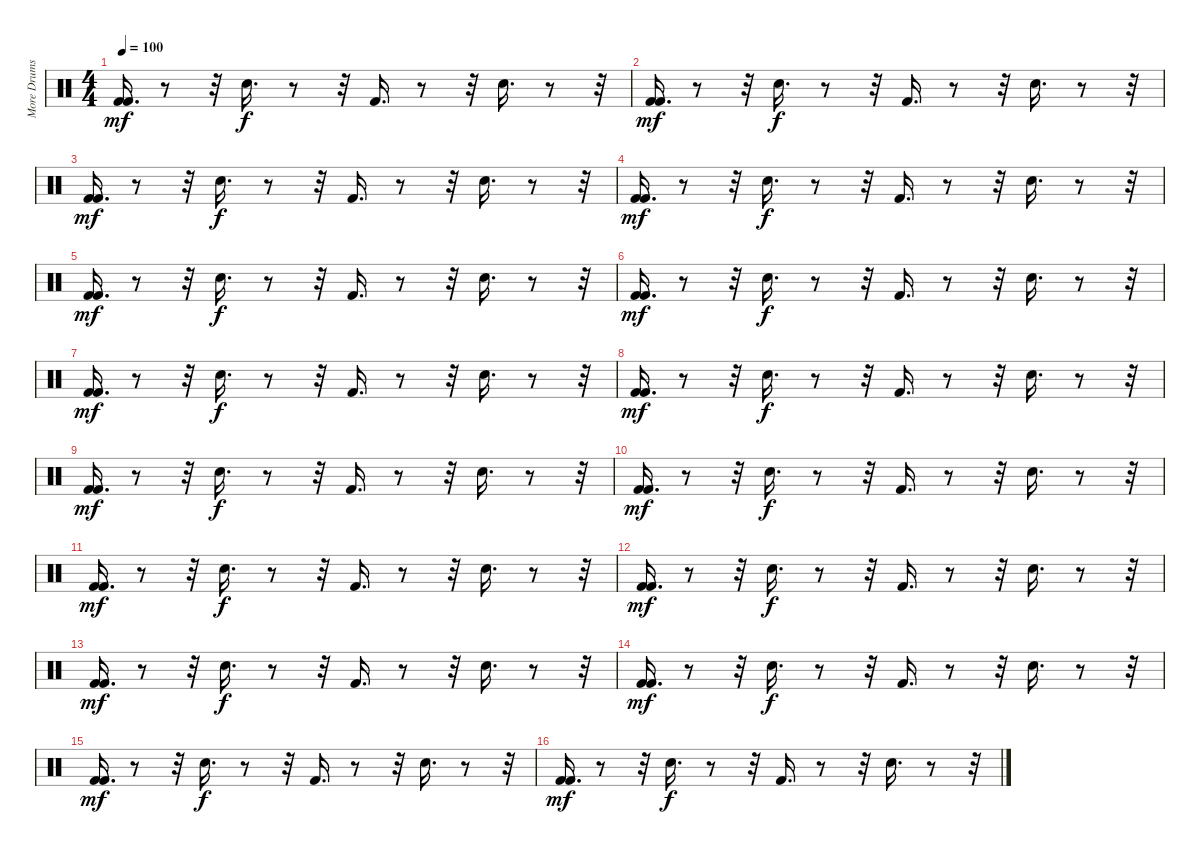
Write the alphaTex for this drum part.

\track ("More Drums" "More Drums") {instrument percussion}
\staff {score}
\articulation defaults
\ts (4 4)
\tempo 100
\clef neutral
\ks c
("Kick (hit) 2" "Kick (hit) 2").16{d dy mf} r.8 r.32 "Electric Snare (hit)".16{d dy f} r.8 r.32 "Kick (hit) 2".16{d} r.8 r.32 "Electric Snare (hit)".16{d} r.8 r.32 |
("Kick (hit) 2" "Kick (hit) 2").16{d dy mf} r.8 r.32 "Electric Snare (hit)".16{d dy f} r.8 r.32 "Kick (hit) 2".16{d} r.8 r.32 "Electric Snare (hit)".16{d} r.8 r.32 |
("Kick (hit) 2" "Kick (hit) 2").16{d dy mf} r.8 r.32 "Electric Snare (hit)".16{d dy f} r.8 r.32 "Kick (hit) 2".16{d} r.8 r.32 "Electric Snare (hit)".16{d} r.8 r.32 |
("Kick (hit) 2" "Kick (hit) 2").16{d dy mf} r.8 r.32 "Electric Snare (hit)".16{d dy f} r.8 r.32 "Kick (hit) 2".16{d} r.8 r.32 "Electric Snare (hit)".16{d} r.8 r.32 |
("Kick (hit) 2" "Kick (hit) 2").16{d dy mf} r.8 r.32 "Electric Snare (hit)".16{d dy f} r.8 r.32 "Kick (hit) 2".16{d} r.8 r.32 "Electric Snare (hit)".16{d} r.8 r.32 |
("Kick (hit) 2" "Kick (hit) 2").16{d dy mf} r.8 r.32 "Electric Snare (hit)".16{d dy f} r.8 r.32 "Kick (hit) 2".16{d} r.8 r.32 "Electric Snare (hit)".16{d} r.8 r.32 |
("Kick (hit) 2" "Kick (hit) 2").16{d dy mf} r.8 r.32 "Electric Snare (hit)".16{d dy f} r.8 r.32 "Kick (hit) 2".16{d} r.8 r.32 "Electric Snare (hit)".16{d} r.8 r.32 |
("Kick (hit) 2" "Kick (hit) 2").16{d dy mf} r.8 r.32 "Electric Snare (hit)".16{d dy f} r.8 r.32 "Kick (hit) 2".16{d} r.8 r.32 "Electric Snare (hit)".16{d} r.8 r.32 |
("Kick (hit) 2" "Kick (hit) 2").16{d dy mf} r.8 r.32 "Electric Snare (hit)".16{d dy f} r.8 r.32 "Kick (hit) 2".16{d} r.8 r.32 "Electric Snare (hit)".16{d} r.8 r.32 |
("Kick (hit) 2" "Kick (hit) 2").16{d dy mf} r.8 r.32 "Electric Snare (hit)".16{d dy f} r.8 r.32 "Kick (hit) 2".16{d} r.8 r.32 "Electric Snare (hit)".16{d} r.8 r.32 |
("Kick (hit) 2" "Kick (hit) 2").16{d dy mf} r.8 r.32 "Electric Snare (hit)".16{d dy f} r.8 r.32 "Kick (hit) 2".16{d} r.8 r.32 "Electric Snare (hit)".16{d} r.8 r.32 |
("Kick (hit) 2" "Kick (hit) 2").16{d dy mf} r.8 r.32 "Electric Snare (hit)".16{d dy f} r.8 r.32 "Kick (hit) 2".16{d} r.8 r.32 "Electric Snare (hit)".16{d} r.8 r.32 |
("Kick (hit) 2" "Kick (hit) 2").16{d dy mf} r.8 r.32 "Electric Snare (hit)".16{d dy f} r.8 r.32 "Kick (hit) 2".16{d} r.8 r.32 "Electric Snare (hit)".16{d} r.8 r.32 |
("Kick (hit) 2" "Kick (hit) 2").16{d dy mf} r.8 r.32 "Electric Snare (hit)".16{d dy f} r.8 r.32 "Kick (hit) 2".16{d} r.8 r.32 "Electric Snare (hit)".16{d} r.8 r.32 |
("Kick (hit) 2" "Kick (hit) 2").16{d dy mf} r.8 r.32 "Electric Snare (hit)".16{d dy f} r.8 r.32 "Kick (hit) 2".16{d} r.8 r.32 "Electric Snare (hit)".16{d} r.8 r.32 |
("Kick (hit) 2" "Kick (hit) 2").16{d dy mf} r.8 r.32 "Electric Snare (hit)".16{d dy f} r.8 r.32 "Kick (hit) 2".16{d} r.8 r.32 "Electric Snare (hit)".16{d} r.8 r.32
